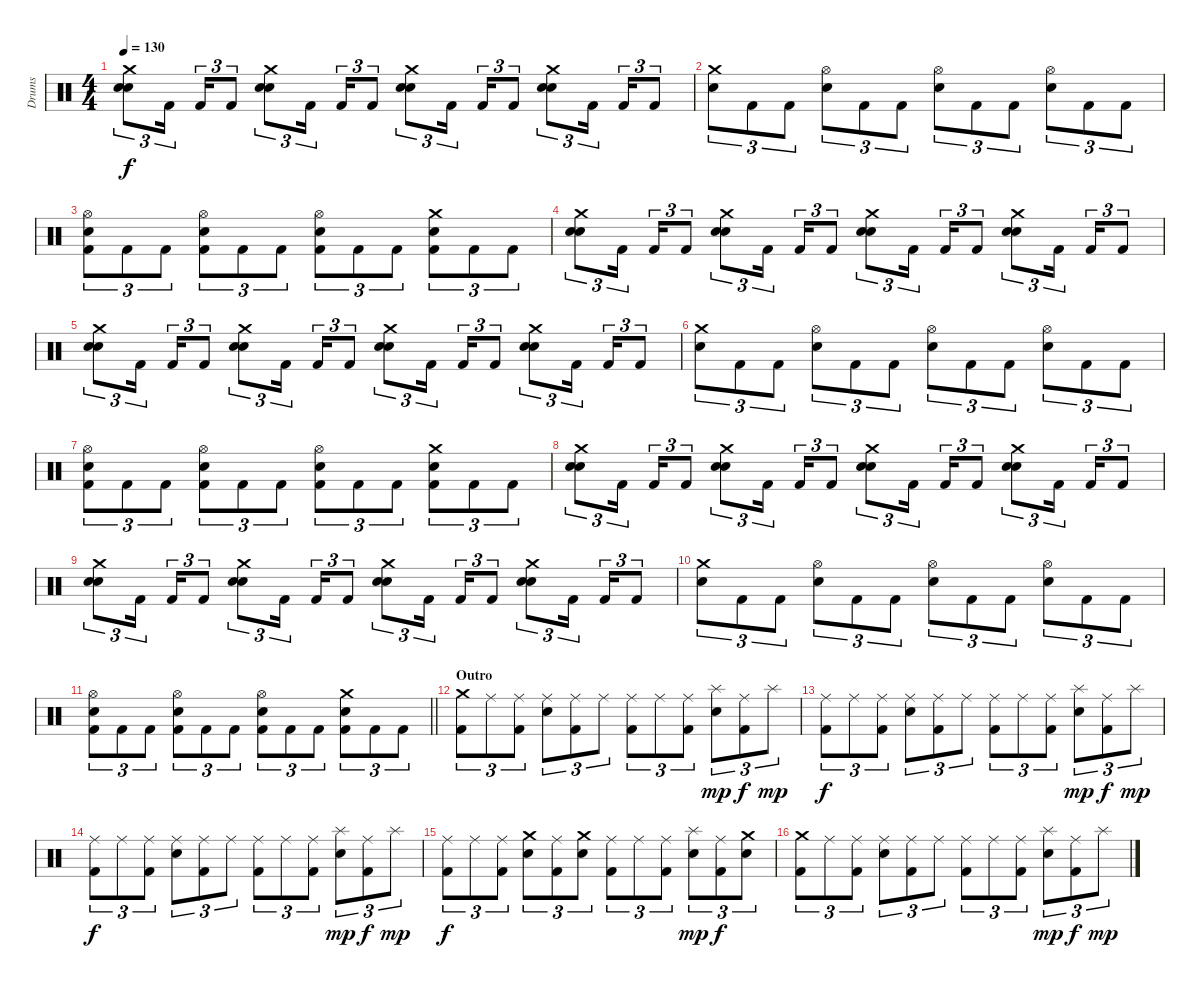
\track ("Drums" "Drums") {instrument percussion}
\staff {score}
\articulation defaults
\ts (4 4)
\tempo 130
\clef neutral
\ks c
("Crash medium (hit)" "Electric Snare (hit)" "Electric Snare (hit)").8{tu (3 2) dy f} "Kick (hit) 2".16{tu (3 2)} "Kick (hit) 2".16{tu (3 2)} "Kick (hit) 2".8{tu (3 2)} ("Crash medium (hit)" "Electric Snare (hit)" "Electric Snare (hit)").8{tu (3 2)} "Kick (hit) 2".16{tu (3 2)} "Kick (hit) 2".16{tu (3 2)} "Kick (hit) 2".8{tu (3 2)} ("Crash medium (hit)" "Electric Snare (hit)" "Electric Snare (hit)").8{tu (3 2)} "Kick (hit) 2".16{tu (3 2)} "Kick (hit) 2".16{tu (3 2)} "Kick (hit) 2".8{tu (3 2)} ("Crash medium (hit)" "Electric Snare (hit)" "Electric Snare (hit)").8{tu (3 2)} "Kick (hit) 2".16{tu (3 2)} "Kick (hit) 2".16{tu (3 2)} "Kick (hit) 2".8{tu (3 2)} |
("Crash medium (hit)" "Electric Snare (hit)").8{tu (3 2)} "Kick (hit) 2".8{tu (3 2)} "Kick (hit) 2".8{tu (3 2)} ("Hi-Hat (open)" "Electric Snare (hit)").8{tu (3 2)} "Kick (hit) 2".8{tu (3 2)} "Kick (hit) 2".8{tu (3 2)} ("Hi-Hat (open)" "Electric Snare (hit)").8{tu (3 2)} "Kick (hit) 2".8{tu (3 2)} "Kick (hit) 2".8{tu (3 2)} ("Hi-Hat (open)" "Electric Snare (hit)").8{tu (3 2)} "Kick (hit) 2".8{tu (3 2)} "Kick (hit) 2".8{tu (3 2)} |
("Hi-Hat (open)" "Electric Snare (hit)" "Kick (hit) 2").8{tu (3 2)} "Kick (hit) 2".8{tu (3 2)} "Kick (hit) 2".8{tu (3 2)} ("Hi-Hat (open)" "Electric Snare (hit)" "Kick (hit) 2").8{tu (3 2)} "Kick (hit) 2".8{tu (3 2)} "Kick (hit) 2".8{tu (3 2)} ("Hi-Hat (open)" "Electric Snare (hit)" "Kick (hit) 2").8{tu (3 2)} "Kick (hit) 2".8{tu (3 2)} "Kick (hit) 2".8{tu (3 2)} ("Crash medium (hit)" "Electric Snare (hit)" "Kick (hit) 2").8{tu (3 2)} "Kick (hit) 2".8{tu (3 2)} "Kick (hit) 2".8{tu (3 2)} |
("Crash medium (hit)" "Electric Snare (hit)" "Electric Snare (hit)").8{tu (3 2)} "Kick (hit) 2".16{tu (3 2)} "Kick (hit) 2".16{tu (3 2)} "Kick (hit) 2".8{tu (3 2)} ("Crash medium (hit)" "Electric Snare (hit)" "Electric Snare (hit)").8{tu (3 2)} "Kick (hit) 2".16{tu (3 2)} "Kick (hit) 2".16{tu (3 2)} "Kick (hit) 2".8{tu (3 2)} ("Crash medium (hit)" "Electric Snare (hit)" "Electric Snare (hit)").8{tu (3 2)} "Kick (hit) 2".16{tu (3 2)} "Kick (hit) 2".16{tu (3 2)} "Kick (hit) 2".8{tu (3 2)} ("Crash medium (hit)" "Electric Snare (hit)" "Electric Snare (hit)").8{tu (3 2)} "Kick (hit) 2".16{tu (3 2)} "Kick (hit) 2".16{tu (3 2)} "Kick (hit) 2".8{tu (3 2)} |
("Crash medium (hit)" "Electric Snare (hit)" "Electric Snare (hit)").8{tu (3 2)} "Kick (hit) 2".16{tu (3 2)} "Kick (hit) 2".16{tu (3 2)} "Kick (hit) 2".8{tu (3 2)} ("Crash medium (hit)" "Electric Snare (hit)" "Electric Snare (hit)").8{tu (3 2)} "Kick (hit) 2".16{tu (3 2)} "Kick (hit) 2".16{tu (3 2)} "Kick (hit) 2".8{tu (3 2)} ("Crash medium (hit)" "Electric Snare (hit)" "Electric Snare (hit)").8{tu (3 2)} "Kick (hit) 2".16{tu (3 2)} "Kick (hit) 2".16{tu (3 2)} "Kick (hit) 2".8{tu (3 2)} ("Crash medium (hit)" "Electric Snare (hit)" "Electric Snare (hit)").8{tu (3 2)} "Kick (hit) 2".16{tu (3 2)} "Kick (hit) 2".16{tu (3 2)} "Kick (hit) 2".8{tu (3 2)} |
("Crash medium (hit)" "Electric Snare (hit)").8{tu (3 2)} "Kick (hit) 2".8{tu (3 2)} "Kick (hit) 2".8{tu (3 2)} ("Hi-Hat (open)" "Electric Snare (hit)").8{tu (3 2)} "Kick (hit) 2".8{tu (3 2)} "Kick (hit) 2".8{tu (3 2)} ("Hi-Hat (open)" "Electric Snare (hit)").8{tu (3 2)} "Kick (hit) 2".8{tu (3 2)} "Kick (hit) 2".8{tu (3 2)} ("Hi-Hat (open)" "Electric Snare (hit)").8{tu (3 2)} "Kick (hit) 2".8{tu (3 2)} "Kick (hit) 2".8{tu (3 2)} |
("Hi-Hat (open)" "Electric Snare (hit)" "Kick (hit) 2").8{tu (3 2)} "Kick (hit) 2".8{tu (3 2)} "Kick (hit) 2".8{tu (3 2)} ("Hi-Hat (open)" "Electric Snare (hit)" "Kick (hit) 2").8{tu (3 2)} "Kick (hit) 2".8{tu (3 2)} "Kick (hit) 2".8{tu (3 2)} ("Hi-Hat (open)" "Electric Snare (hit)" "Kick (hit) 2").8{tu (3 2)} "Kick (hit) 2".8{tu (3 2)} "Kick (hit) 2".8{tu (3 2)} ("Crash medium (hit)" "Electric Snare (hit)" "Kick (hit) 2").8{tu (3 2)} "Kick (hit) 2".8{tu (3 2)} "Kick (hit) 2".8{tu (3 2)} |
("Crash medium (hit)" "Electric Snare (hit)" "Electric Snare (hit)").8{tu (3 2)} "Kick (hit) 2".16{tu (3 2)} "Kick (hit) 2".16{tu (3 2)} "Kick (hit) 2".8{tu (3 2)} ("Crash medium (hit)" "Electric Snare (hit)" "Electric Snare (hit)").8{tu (3 2)} "Kick (hit) 2".16{tu (3 2)} "Kick (hit) 2".16{tu (3 2)} "Kick (hit) 2".8{tu (3 2)} ("Crash medium (hit)" "Electric Snare (hit)" "Electric Snare (hit)").8{tu (3 2)} "Kick (hit) 2".16{tu (3 2)} "Kick (hit) 2".16{tu (3 2)} "Kick (hit) 2".8{tu (3 2)} ("Crash medium (hit)" "Electric Snare (hit)" "Electric Snare (hit)").8{tu (3 2)} "Kick (hit) 2".16{tu (3 2)} "Kick (hit) 2".16{tu (3 2)} "Kick (hit) 2".8{tu (3 2)} |
("Crash medium (hit)" "Electric Snare (hit)" "Electric Snare (hit)").8{tu (3 2)} "Kick (hit) 2".16{tu (3 2)} "Kick (hit) 2".16{tu (3 2)} "Kick (hit) 2".8{tu (3 2)} ("Crash medium (hit)" "Electric Snare (hit)" "Electric Snare (hit)").8{tu (3 2)} "Kick (hit) 2".16{tu (3 2)} "Kick (hit) 2".16{tu (3 2)} "Kick (hit) 2".8{tu (3 2)} ("Crash medium (hit)" "Electric Snare (hit)" "Electric Snare (hit)").8{tu (3 2)} "Kick (hit) 2".16{tu (3 2)} "Kick (hit) 2".16{tu (3 2)} "Kick (hit) 2".8{tu (3 2)} ("Crash medium (hit)" "Electric Snare (hit)" "Electric Snare (hit)").8{tu (3 2)} "Kick (hit) 2".16{tu (3 2)} "Kick (hit) 2".16{tu (3 2)} "Kick (hit) 2".8{tu (3 2)} |
("Crash medium (hit)" "Electric Snare (hit)").8{tu (3 2)} "Kick (hit) 2".8{tu (3 2)} "Kick (hit) 2".8{tu (3 2)} ("Hi-Hat (open)" "Electric Snare (hit)").8{tu (3 2)} "Kick (hit) 2".8{tu (3 2)} "Kick (hit) 2".8{tu (3 2)} ("Hi-Hat (open)" "Electric Snare (hit)").8{tu (3 2)} "Kick (hit) 2".8{tu (3 2)} "Kick (hit) 2".8{tu (3 2)} ("Hi-Hat (open)" "Electric Snare (hit)").8{tu (3 2)} "Kick (hit) 2".8{tu (3 2)} "Kick (hit) 2".8{tu (3 2)} |
\barLineRight lightlight
("Hi-Hat (open)" "Electric Snare (hit)" "Kick (hit) 2").8{tu (3 2)} "Kick (hit) 2".8{tu (3 2)} "Kick (hit) 2".8{tu (3 2)} ("Hi-Hat (open)" "Electric Snare (hit)" "Kick (hit) 2").8{tu (3 2)} "Kick (hit) 2".8{tu (3 2)} "Kick (hit) 2".8{tu (3 2)} ("Hi-Hat (open)" "Electric Snare (hit)" "Kick (hit) 2").8{tu (3 2)} "Kick (hit) 2".8{tu (3 2)} "Kick (hit) 2".8{tu (3 2)} ("Crash medium (hit)" "Electric Snare (hit)" "Kick (hit) 2").8{tu (3 2)} "Kick (hit) 2".8{tu (3 2)} "Kick (hit) 2".8{tu (3 2)} |
\section ("" "Outro")
("Crash medium (hit)" "Kick (hit) 2").8{tu (3 2)} "Ride (middle)".8{tu (3 2)} ("Ride (middle)" "Kick (hit) 2").8{tu (3 2)} ("Ride (middle)" "Electric Snare (hit)").8{tu (3 2)} ("Ride (middle)" "Kick (hit) 2").8{tu (3 2)} "Ride (middle)".8{tu (3 2)} ("Ride (middle)" "Kick (hit) 2").8{tu (3 2)} "Ride (middle)".8{tu (3 2)} ("Ride (middle)" "Kick (hit) 2").8{tu (3 2)} ("Splash (hit)" "Electric Snare (hit)").8{tu (3 2) dy mp} ("Ride (middle)" "Kick (hit) 2").8{tu (3 2) dy f} "Splash (hit)".8{tu (3 2) dy mp} |
("Ride (middle)" "Kick (hit) 2").8{tu (3 2) dy f} "Ride (middle)".8{tu (3 2)} ("Ride (middle)" "Kick (hit) 2").8{tu (3 2)} ("Ride (middle)" "Electric Snare (hit)").8{tu (3 2)} ("Ride (middle)" "Kick (hit) 2").8{tu (3 2)} "Ride (middle)".8{tu (3 2)} ("Ride (middle)" "Kick (hit) 2").8{tu (3 2)} "Ride (middle)".8{tu (3 2)} ("Ride (middle)" "Kick (hit) 2").8{tu (3 2)} ("Splash (hit)" "Electric Snare (hit)").8{tu (3 2) dy mp} ("Ride (middle)" "Kick (hit) 2").8{tu (3 2) dy f} "Splash (hit)".8{tu (3 2) dy mp} |
("Ride (middle)" "Kick (hit) 2").8{tu (3 2) dy f} "Ride (middle)".8{tu (3 2)} ("Ride (middle)" "Kick (hit) 2").8{tu (3 2)} ("Ride (middle)" "Electric Snare (hit)").8{tu (3 2)} ("Ride (middle)" "Kick (hit) 2").8{tu (3 2)} "Ride (middle)".8{tu (3 2)} ("Ride (middle)" "Kick (hit) 2").8{tu (3 2)} "Ride (middle)".8{tu (3 2)} ("Ride (middle)" "Kick (hit) 2").8{tu (3 2)} ("Splash (hit)" "Electric Snare (hit)").8{tu (3 2) dy mp} ("Ride (middle)" "Kick (hit) 2").8{tu (3 2) dy f} "Splash (hit)".8{tu (3 2) dy mp} |
("Ride (middle)" "Kick (hit) 2").8{tu (3 2) dy f} "Ride (middle)".8{tu (3 2)} ("Ride (middle)" "Kick (hit) 2").8{tu (3 2)} ("Crash medium (hit)" "Electric Snare (hit)").8{tu (3 2)} ("Ride (middle)" "Kick (hit) 2").8{tu (3 2)} ("Crash medium (hit)" "Electric Snare (hit)").8{tu (3 2)} ("Ride (middle)" "Kick (hit) 2").8{tu (3 2)} "Ride (middle)".8{tu (3 2)} ("Ride (middle)" "Kick (hit) 2").8{tu (3 2)} ("Splash (hit)" "Electric Snare (hit)").8{tu (3 2) dy mp} ("Ride (middle)" "Kick (hit) 2").8{tu (3 2) dy f} ("Crash medium (hit)" "Electric Snare (hit)").8{tu (3 2)} |
("Crash medium (hit)" "Kick (hit) 2").8{tu (3 2)} "Ride (middle)".8{tu (3 2)} ("Ride (middle)" "Kick (hit) 2").8{tu (3 2)} ("Ride (middle)" "Electric Snare (hit)").8{tu (3 2)} ("Ride (middle)" "Kick (hit) 2").8{tu (3 2)} "Ride (middle)".8{tu (3 2)} ("Ride (middle)" "Kick (hit) 2").8{tu (3 2)} "Ride (middle)".8{tu (3 2)} ("Ride (middle)" "Kick (hit) 2").8{tu (3 2)} ("Splash (hit)" "Electric Snare (hit)").8{tu (3 2) dy mp} ("Ride (middle)" "Kick (hit) 2").8{tu (3 2) dy f} "Splash (hit)".8{tu (3 2) dy mp}
